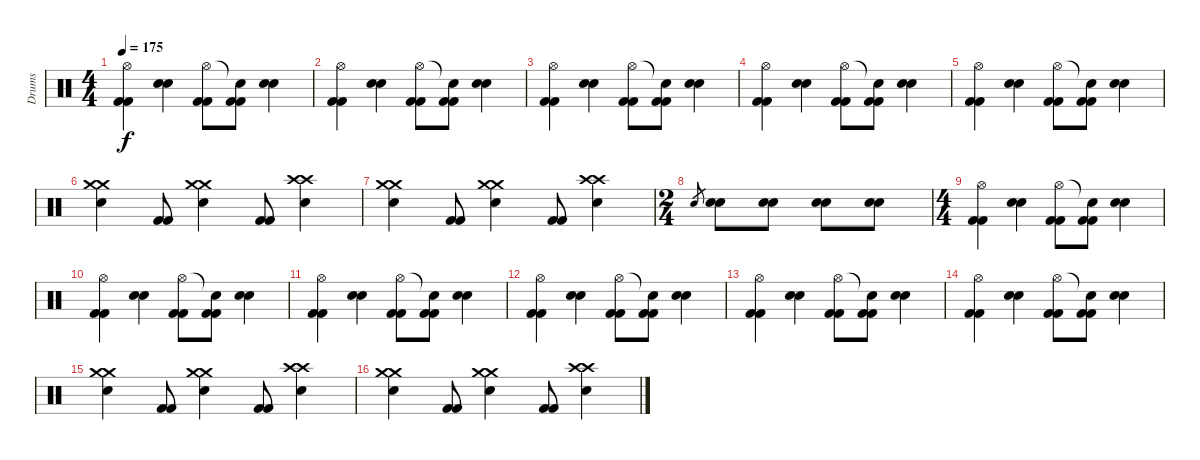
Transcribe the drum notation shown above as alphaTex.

\track ("Drums" "Drums") {instrument percussion}
\staff {score}
\articulation defaults
\ts (4 4)
\tempo 175
\clef neutral
\ks c
("Kick (hit) 2" "Kick (hit) 2" "Hi-Hat (open)").4{dy f} ("Snare (hit) 2" "Snare (hit) 2").4 ("Kick (hit) 2" "Kick (hit) 2" "Hi-Hat (open)").8 ("Kick (hit) 2" "Kick (hit) 2" "Snare (hit)"{t}).8 ("Snare (hit) 2" "Snare (hit) 2").4 |
("Kick (hit) 2" "Kick (hit) 2" "Hi-Hat (open)").4 ("Snare (hit) 2" "Snare (hit) 2").4 ("Kick (hit) 2" "Kick (hit) 2" "Hi-Hat (open)").8 ("Kick (hit) 2" "Kick (hit) 2" "Snare (hit)"{t}).8 ("Snare (hit) 2" "Snare (hit) 2").4 |
("Kick (hit) 2" "Kick (hit) 2" "Hi-Hat (open)").4 ("Snare (hit) 2" "Snare (hit) 2").4 ("Kick (hit) 2" "Kick (hit) 2" "Hi-Hat (open)").8 ("Kick (hit) 2" "Kick (hit) 2" "Snare (hit)"{t}).8 ("Snare (hit) 2" "Snare (hit) 2").4 |
("Kick (hit) 2" "Kick (hit) 2" "Hi-Hat (open)").4 ("Snare (hit) 2" "Snare (hit) 2").4 ("Kick (hit) 2" "Kick (hit) 2" "Hi-Hat (open)").8 ("Kick (hit) 2" "Kick (hit) 2" "Snare (hit)"{t}).8 ("Snare (hit) 2" "Snare (hit) 2").4 |
("Kick (hit) 2" "Kick (hit) 2" "Hi-Hat (open)").4 ("Snare (hit) 2" "Snare (hit) 2").4 ("Kick (hit) 2" "Kick (hit) 2" "Hi-Hat (open)").8 ("Kick (hit) 2" "Kick (hit) 2" "Snare (hit)"{t}).8 ("Snare (hit) 2" "Snare (hit) 2").4 |
("Crash medium (hit)" "Crash medium (hit)" "Snare (hit) 2").4 ("Kick (hit) 2" "Kick (hit) 2").8 ("Crash medium (hit)" "Crash medium (hit)" "Snare (hit) 2").4 ("Kick (hit) 2" "Kick (hit) 2").8 ("Crash high (hit)" "Crash high (hit)" "Snare (hit) 2").4 |
("Crash medium (hit)" "Crash medium (hit)" "Snare (hit) 2").4 ("Kick (hit) 2" "Kick (hit) 2").8 ("Crash medium (hit)" "Crash medium (hit)" "Snare (hit) 2").4 ("Kick (hit) 2" "Kick (hit) 2").8 ("Crash high (hit)" "Crash high (hit)" "Snare (hit) 2").4 |
\ts (2 4)
"Snare (hit) 2".8{gr} ("Snare (hit) 2" "Snare (hit) 2").8 ("Snare (hit) 2" "Snare (hit) 2").8 ("Snare (hit) 2" "Snare (hit) 2").8 ("Snare (hit) 2" "Snare (hit) 2").8 |
\ts (4 4)
("Kick (hit) 2" "Kick (hit) 2" "Hi-Hat (open)").4 ("Snare (hit) 2" "Snare (hit) 2").4 ("Kick (hit) 2" "Kick (hit) 2" "Hi-Hat (open)").8 ("Kick (hit) 2" "Kick (hit) 2" "Snare (hit)"{t}).8 ("Snare (hit) 2" "Snare (hit) 2").4 |
("Kick (hit) 2" "Kick (hit) 2" "Hi-Hat (open)").4 ("Snare (hit) 2" "Snare (hit) 2").4 ("Kick (hit) 2" "Kick (hit) 2" "Hi-Hat (open)").8 ("Kick (hit) 2" "Kick (hit) 2" "Snare (hit)"{t}).8 ("Snare (hit) 2" "Snare (hit) 2").4 |
("Kick (hit) 2" "Kick (hit) 2" "Hi-Hat (open)").4 ("Snare (hit) 2" "Snare (hit) 2").4 ("Kick (hit) 2" "Kick (hit) 2" "Hi-Hat (open)").8 ("Kick (hit) 2" "Kick (hit) 2" "Snare (hit)"{t}).8 ("Snare (hit) 2" "Snare (hit) 2").4 |
("Kick (hit) 2" "Kick (hit) 2" "Hi-Hat (open)").4 ("Snare (hit) 2" "Snare (hit) 2").4 ("Kick (hit) 2" "Kick (hit) 2" "Hi-Hat (open)").8 ("Kick (hit) 2" "Kick (hit) 2" "Snare (hit)"{t}).8 ("Snare (hit) 2" "Snare (hit) 2").4 |
("Kick (hit) 2" "Kick (hit) 2" "Hi-Hat (open)").4 ("Snare (hit) 2" "Snare (hit) 2").4 ("Kick (hit) 2" "Kick (hit) 2" "Hi-Hat (open)").8 ("Kick (hit) 2" "Kick (hit) 2" "Snare (hit)"{t}).8 ("Snare (hit) 2" "Snare (hit) 2").4 |
("Kick (hit) 2" "Kick (hit) 2" "Hi-Hat (open)").4 ("Snare (hit) 2" "Snare (hit) 2").4 ("Kick (hit) 2" "Kick (hit) 2" "Hi-Hat (open)").8 ("Kick (hit) 2" "Kick (hit) 2" "Snare (hit)"{t}).8 ("Snare (hit) 2" "Snare (hit) 2").4 |
("Crash medium (hit)" "Crash medium (hit)" "Snare (hit) 2").4 ("Kick (hit) 2" "Kick (hit) 2").8 ("Crash medium (hit)" "Crash medium (hit)" "Snare (hit) 2").4 ("Kick (hit) 2" "Kick (hit) 2").8 ("Crash high (hit)" "Crash high (hit)" "Snare (hit) 2").4 |
("Crash medium (hit)" "Crash medium (hit)" "Snare (hit) 2").4 ("Kick (hit) 2" "Kick (hit) 2").8 ("Crash medium (hit)" "Crash medium (hit)" "Snare (hit) 2").4 ("Kick (hit) 2" "Kick (hit) 2").8 ("Crash high (hit)" "Crash high (hit)" "Snare (hit) 2").4
